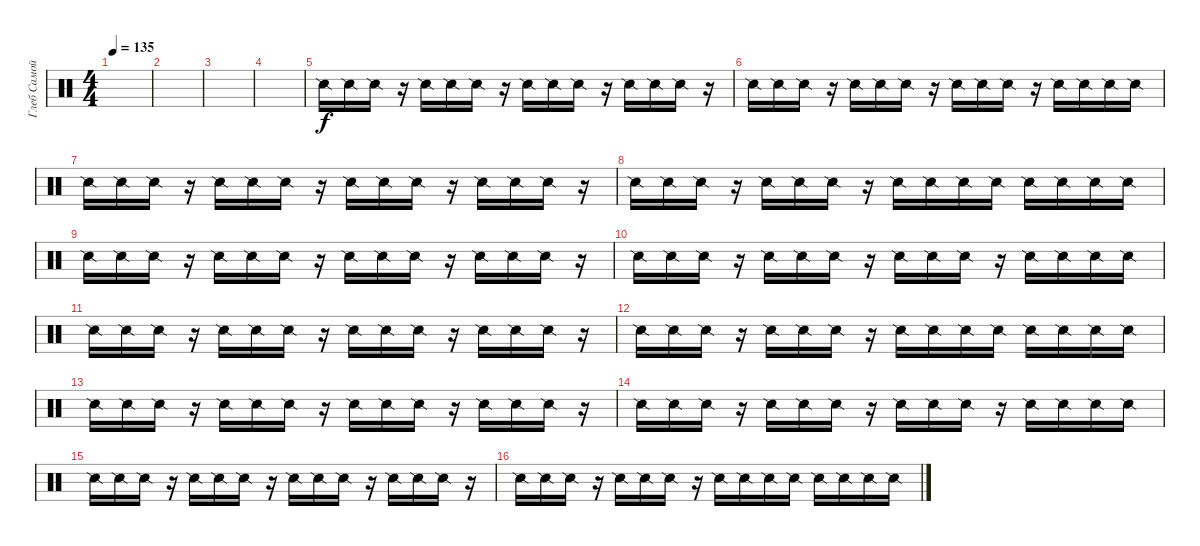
\track ("Глеб Самойлов (fx)" "Глеб Самой") {instrument percussion}
\staff {score}
\articulation defaults
\ts (4 4)
\tempo 135
\clef neutral
\ks c
|
|
|
|
"Snare (side stick) 2".16 "Snare (side stick) 2".16 "Snare (side stick) 2".16 r.16 "Snare (side stick) 2".16 "Snare (side stick) 2".16 "Snare (side stick) 2".16 r.16 "Snare (side stick) 2".16 "Snare (side stick) 2".16 "Snare (side stick) 2".16 r.16 "Snare (side stick) 2".16 "Snare (side stick) 2".16 "Snare (side stick) 2".16 r.16 |
"Snare (side stick) 2".16 "Snare (side stick) 2".16 "Snare (side stick) 2".16 r.16 "Snare (side stick) 2".16 "Snare (side stick) 2".16 "Snare (side stick) 2".16 r.16 "Snare (side stick) 2".16 "Snare (side stick) 2".16 "Snare (side stick) 2".16 r.16 "Snare (side stick) 2".16 "Snare (side stick) 2".16 "Snare (side stick) 2".16 "Snare (side stick) 2".16 |
"Snare (side stick) 2".16 "Snare (side stick) 2".16 "Snare (side stick) 2".16 r.16 "Snare (side stick) 2".16 "Snare (side stick) 2".16 "Snare (side stick) 2".16 r.16 "Snare (side stick) 2".16 "Snare (side stick) 2".16 "Snare (side stick) 2".16 r.16 "Snare (side stick) 2".16 "Snare (side stick) 2".16 "Snare (side stick) 2".16 r.16 |
"Snare (side stick) 2".16 "Snare (side stick) 2".16 "Snare (side stick) 2".16 r.16 "Snare (side stick) 2".16 "Snare (side stick) 2".16 "Snare (side stick) 2".16 r.16 "Snare (side stick) 2".16 "Snare (side stick) 2".16 "Snare (side stick) 2".16 "Snare (side stick) 2".16 "Snare (side stick) 2".16 "Snare (side stick) 2".16 "Snare (side stick) 2".16 "Snare (side stick) 2".16 |
"Snare (side stick) 2".16 "Snare (side stick) 2".16 "Snare (side stick) 2".16 r.16 "Snare (side stick) 2".16 "Snare (side stick) 2".16 "Snare (side stick) 2".16 r.16 "Snare (side stick) 2".16 "Snare (side stick) 2".16 "Snare (side stick) 2".16 r.16 "Snare (side stick) 2".16 "Snare (side stick) 2".16 "Snare (side stick) 2".16 r.16 |
"Snare (side stick) 2".16 "Snare (side stick) 2".16 "Snare (side stick) 2".16 r.16 "Snare (side stick) 2".16 "Snare (side stick) 2".16 "Snare (side stick) 2".16 r.16 "Snare (side stick) 2".16 "Snare (side stick) 2".16 "Snare (side stick) 2".16 r.16 "Snare (side stick) 2".16 "Snare (side stick) 2".16 "Snare (side stick) 2".16 "Snare (side stick) 2".16 |
"Snare (side stick) 2".16 "Snare (side stick) 2".16 "Snare (side stick) 2".16 r.16 "Snare (side stick) 2".16 "Snare (side stick) 2".16 "Snare (side stick) 2".16 r.16 "Snare (side stick) 2".16 "Snare (side stick) 2".16 "Snare (side stick) 2".16 r.16 "Snare (side stick) 2".16 "Snare (side stick) 2".16 "Snare (side stick) 2".16 r.16 |
"Snare (side stick) 2".16 "Snare (side stick) 2".16 "Snare (side stick) 2".16 r.16 "Snare (side stick) 2".16 "Snare (side stick) 2".16 "Snare (side stick) 2".16 r.16 "Snare (side stick) 2".16 "Snare (side stick) 2".16 "Snare (side stick) 2".16 "Snare (side stick) 2".16 "Snare (side stick) 2".16 "Snare (side stick) 2".16 "Snare (side stick) 2".16 "Snare (side stick) 2".16 |
"Snare (side stick) 2".16 "Snare (side stick) 2".16 "Snare (side stick) 2".16 r.16 "Snare (side stick) 2".16 "Snare (side stick) 2".16 "Snare (side stick) 2".16 r.16 "Snare (side stick) 2".16 "Snare (side stick) 2".16 "Snare (side stick) 2".16 r.16 "Snare (side stick) 2".16 "Snare (side stick) 2".16 "Snare (side stick) 2".16 r.16 |
"Snare (side stick) 2".16 "Snare (side stick) 2".16 "Snare (side stick) 2".16 r.16 "Snare (side stick) 2".16 "Snare (side stick) 2".16 "Snare (side stick) 2".16 r.16 "Snare (side stick) 2".16 "Snare (side stick) 2".16 "Snare (side stick) 2".16 r.16 "Snare (side stick) 2".16 "Snare (side stick) 2".16 "Snare (side stick) 2".16 "Snare (side stick) 2".16 |
"Snare (side stick) 2".16 "Snare (side stick) 2".16 "Snare (side stick) 2".16 r.16 "Snare (side stick) 2".16 "Snare (side stick) 2".16 "Snare (side stick) 2".16 r.16 "Snare (side stick) 2".16 "Snare (side stick) 2".16 "Snare (side stick) 2".16 r.16 "Snare (side stick) 2".16 "Snare (side stick) 2".16 "Snare (side stick) 2".16 r.16 |
"Snare (side stick) 2".16 "Snare (side stick) 2".16 "Snare (side stick) 2".16 r.16 "Snare (side stick) 2".16 "Snare (side stick) 2".16 "Snare (side stick) 2".16 r.16 "Snare (side stick) 2".16 "Snare (side stick) 2".16 "Snare (side stick) 2".16 "Snare (side stick) 2".16 "Snare (side stick) 2".16 "Snare (side stick) 2".16 "Snare (side stick) 2".16 "Snare (side stick) 2".16
